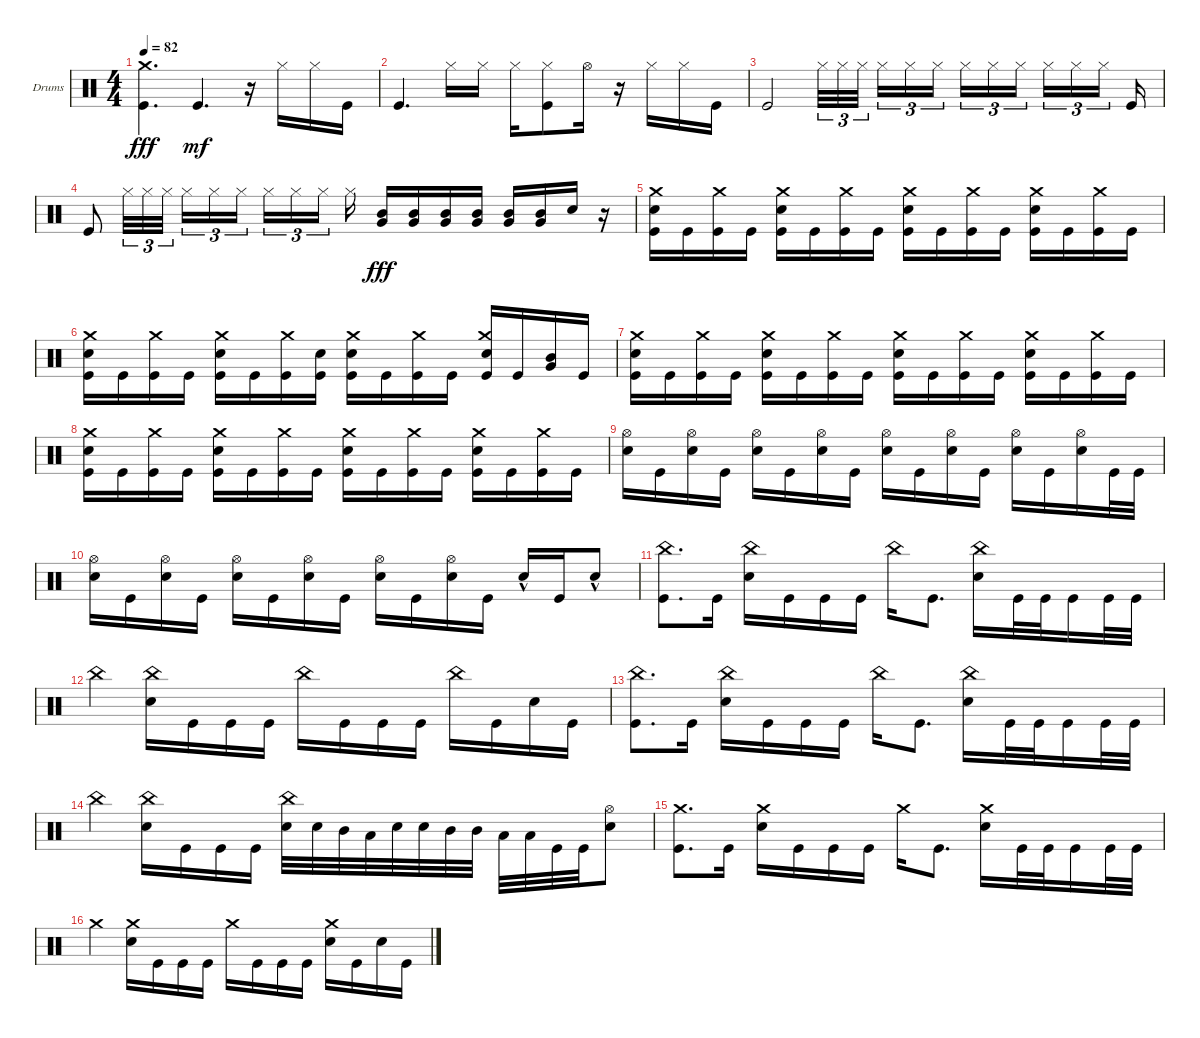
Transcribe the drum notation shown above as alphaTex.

\defaultSystemsLayout 4
\bracketExtendMode groupsimilarinstruments
\firstSystemTrackNameOrientation horizontal
\otherSystemsTrackNameOrientation horizontal
\track ("Drumkit" "Drums") {instrument percussion}
\staff {score}
\articulation defaults
\ts (4 4)
\tempo 82
\clef neutral
\ks c
("Kick (hit)" "Crash medium (hit)").4{d dy fff} "Kick (hit)".4{d dy mf} r.16 "Hi-Hat (closed)".16 "Hi-Hat (closed)".16 "Kick (hit)".16 |
"Kick (hit)".4{d} "Hi-Hat (closed)".16 "Hi-Hat (closed)".16 "Hi-Hat (closed)".16 ("Hi-Hat (closed)" "Kick (hit)").8 "Hi-Hat (open)".16 r.16 "Hi-Hat (closed)".16 "Hi-Hat (closed)".16 "Kick (hit)".16 |
"Kick (hit)".2 "Hi-Hat (closed)".32{tu (3 2)} "Hi-Hat (closed)".32{tu (3 2)} "Hi-Hat (closed)".32{tu (3 2)} "Hi-Hat (closed)".16{tu (3 2)} "Hi-Hat (closed)".16{tu (3 2)} "Hi-Hat (closed)".16{tu (3 2)} "Hi-Hat (closed)".16{tu (3 2)} "Hi-Hat (closed)".16{tu (3 2)} "Hi-Hat (closed)".16{tu (3 2)} "Hi-Hat (closed)".16{tu (3 2)} "Hi-Hat (closed)".16{tu (3 2)} "Hi-Hat (closed)".16{tu (3 2)} "Kick (hit)".16 |
"Kick (hit)".8 "Hi-Hat (closed)".32{tu (3 2)} "Hi-Hat (closed)".32{tu (3 2)} "Hi-Hat (closed)".32{tu (3 2)} "Hi-Hat (closed)".16{tu (3 2)} "Hi-Hat (closed)".16{tu (3 2)} "Hi-Hat (closed)".16{tu (3 2)} "Hi-Hat (closed)".16{tu (3 2)} "Hi-Hat (closed)".16{tu (3 2)} "Hi-Hat (closed)".16{tu (3 2)} "Hi-Hat (closed)".16 ("Mid Tom (hit)" "Very Low Tom (hit)").16{dy fff} ("Mid Tom (hit)" "Very Low Tom (hit)").16 ("Mid Tom (hit)" "Very Low Tom (hit)").16 ("Mid Tom (hit)" "Very Low Tom (hit)").16 ("Mid Tom (hit)" "Very Low Tom (hit)").16 ("Mid Tom (hit)" "Very Low Tom (hit)").16 "Snare (hit) 2".16 r.16 |
("Snare (hit) 2" "Crash medium (hit)" "Kick (hit)").16 "Kick (hit)".16 ("Kick (hit)" "Crash medium (hit)").16 "Kick (hit)".16 ("Snare (hit) 2" "Crash medium (hit)" "Kick (hit)").16 "Kick (hit)".16 ("Kick (hit)" "Crash medium (hit)").16 "Kick (hit)".16 ("Snare (hit) 2" "Crash medium (hit)" "Kick (hit)").16 "Kick (hit)".16 ("Kick (hit)" "Crash medium (hit)").16 "Kick (hit)".16 ("Snare (hit) 2" "Crash medium (hit)" "Kick (hit)").16 "Kick (hit)".16 ("Kick (hit)" "Crash medium (hit)").16 "Kick (hit)".16 |
("Snare (hit) 2" "Crash medium (hit)" "Kick (hit)").16 "Kick (hit)".16 ("Kick (hit)" "Crash medium (hit)").16 "Kick (hit)".16 ("Snare (hit) 2" "Crash medium (hit)" "Kick (hit)").16 "Kick (hit)".16 ("Kick (hit)" "Crash medium (hit)").16 ("Kick (hit)" "Snare (hit) 2").16 ("Snare (hit) 2" "Crash medium (hit)" "Kick (hit)").16 "Kick (hit)".16 ("Kick (hit)" "Crash medium (hit)").16 "Kick (hit)".16 ("Snare (hit) 2" "Crash medium (hit)" "Kick (hit)").16 "Kick (hit)".16 ("Mid Tom (hit)" "Very Low Tom (hit)").16 "Kick (hit)".16 |
("Snare (hit) 2" "Crash medium (hit)" "Kick (hit)").16 "Kick (hit)".16 ("Kick (hit)" "Crash medium (hit)").16 "Kick (hit)".16 ("Snare (hit) 2" "Crash medium (hit)" "Kick (hit)").16 "Kick (hit)".16 ("Kick (hit)" "Crash medium (hit)").16 "Kick (hit)".16 ("Snare (hit) 2" "Crash medium (hit)" "Kick (hit)").16 "Kick (hit)".16 ("Kick (hit)" "Crash medium (hit)").16 "Kick (hit)".16 ("Snare (hit) 2" "Crash medium (hit)" "Kick (hit)").16 "Kick (hit)".16 ("Kick (hit)" "Crash medium (hit)").16 "Kick (hit)".16 |
("Snare (hit) 2" "Crash medium (hit)" "Kick (hit)").16 "Kick (hit)".16 ("Kick (hit)" "Crash medium (hit)").16 "Kick (hit)".16 ("Snare (hit) 2" "Crash medium (hit)" "Kick (hit)").16 "Kick (hit)".16 ("Kick (hit)" "Crash medium (hit)").16 "Kick (hit)".16 ("Snare (hit) 2" "Crash medium (hit)" "Kick (hit)").16 "Kick (hit)".16 ("Kick (hit)" "Crash medium (hit)").16 "Kick (hit)".16 ("Snare (hit) 2" "Crash medium (hit)" "Kick (hit)").16 "Kick (hit)".16 ("Kick (hit)" "Crash medium (hit)").16 "Kick (hit)".16 |
("Snare (hit) 2" "Hi-Hat (open)").16 "Kick (hit)".16 ("Snare (hit) 2" "Hi-Hat (open)").16 "Kick (hit)".16 ("Snare (hit) 2" "Hi-Hat (open)").16 "Kick (hit)".16 ("Snare (hit) 2" "Hi-Hat (open)").16 "Kick (hit)".16 ("Snare (hit) 2" "Hi-Hat (open)").16 "Kick (hit)".16 ("Snare (hit) 2" "Hi-Hat (open)").16 "Kick (hit)".16 ("Snare (hit) 2" "Hi-Hat (open)").16 "Kick (hit)".16 ("Snare (hit) 2" "Hi-Hat (open)").16 "Kick (hit)".32 "Kick (hit)".32 |
("Snare (hit) 2" "Hi-Hat (open)").16 "Kick (hit)".16 ("Snare (hit) 2" "Hi-Hat (open)").16 "Kick (hit)".16 ("Snare (hit) 2" "Hi-Hat (open)").16 "Kick (hit)".16 ("Snare (hit) 2" "Hi-Hat (open)").16 "Kick (hit)".16 ("Snare (hit) 2" "Hi-Hat (open)").16 "Kick (hit)".16 ("Snare (hit) 2" "Hi-Hat (open)").16 "Kick (hit)".16 "Snare (hit) 2"{hac}.16 "Kick (hit)".16 "Snare (hit) 2"{hac}.8 |
("Kick (hit)" "China (hit)").8{d} "Kick (hit)".16 ("China (hit)" "Snare (hit) 2").16 "Kick (hit)".16 "Kick (hit)".16 "Kick (hit)".16 "China (hit)".16 "Kick (hit)".8{d} ("China (hit)" "Snare (hit) 2").16 "Kick (hit)".32 "Kick (hit)".32 "Kick (hit)".16 "Kick (hit)".32 "Kick (hit)".32 |
"China (hit)".4 ("Snare (hit) 2" "China (hit)").16 "Kick (hit)".16 "Kick (hit)".16 "Kick (hit)".16 "China (hit)".16 "Kick (hit)".16 "Kick (hit)".16 "Kick (hit)".16 "China (hit)".16 "Kick (hit)".16 "Snare (hit) 2".16 "Kick (hit)".16 |
("Kick (hit)" "China (hit)").8{d} "Kick (hit)".16 ("China (hit)" "Snare (hit) 2").16 "Kick (hit)".16 "Kick (hit)".16 "Kick (hit)".16 "China (hit)".16 "Kick (hit)".8{d} ("China (hit)" "Snare (hit) 2").16 "Kick (hit)".32 "Kick (hit)".32 "Kick (hit)".16 "Kick (hit)".32 "Kick (hit)".32 |
"China (hit)".4 ("Snare (hit) 2" "China (hit)").16 "Kick (hit)".16 "Kick (hit)".16 "Kick (hit)".16 ("China (hit)" "Snare (hit) 2").32 "Snare (hit) 2".32 "Mid Tom (hit)".32 "Low Tom (hit)".32 "Snare (hit) 2".32 "Snare (hit) 2".32 "Mid Tom (hit)".32 "Mid Tom (hit)".32 "Low Tom (hit)".32 "Low Tom (hit)".32 "Kick (hit)".32 "Kick (hit)".32 ("Snare (hit) 2" "Hi-Hat (open)").8 |
("Kick (hit)" "Crash medium (hit)").8{d} "Kick (hit)".16 ("Snare (hit) 2" "Crash medium (hit)").16 "Kick (hit)".16 "Kick (hit)".16 "Kick (hit)".16 "Crash medium (hit)".16 "Kick (hit)".8{d} ("Snare (hit) 2" "Crash medium (hit)").16 "Kick (hit)".32 "Kick (hit)".32 "Kick (hit)".16 "Kick (hit)".32 "Kick (hit)".32 |
"Crash medium (hit)".4 ("Snare (hit) 2" "Crash medium (hit)").16 "Kick (hit)".16 "Kick (hit)".16 "Kick (hit)".16 "Crash medium (hit)".16 "Kick (hit)".16 "Kick (hit)".16 "Kick (hit)".16 ("Snare (hit) 2" "Crash medium (hit)").16 "Kick (hit)".16 "Snare (hit) 2".16 "Kick (hit)".16
